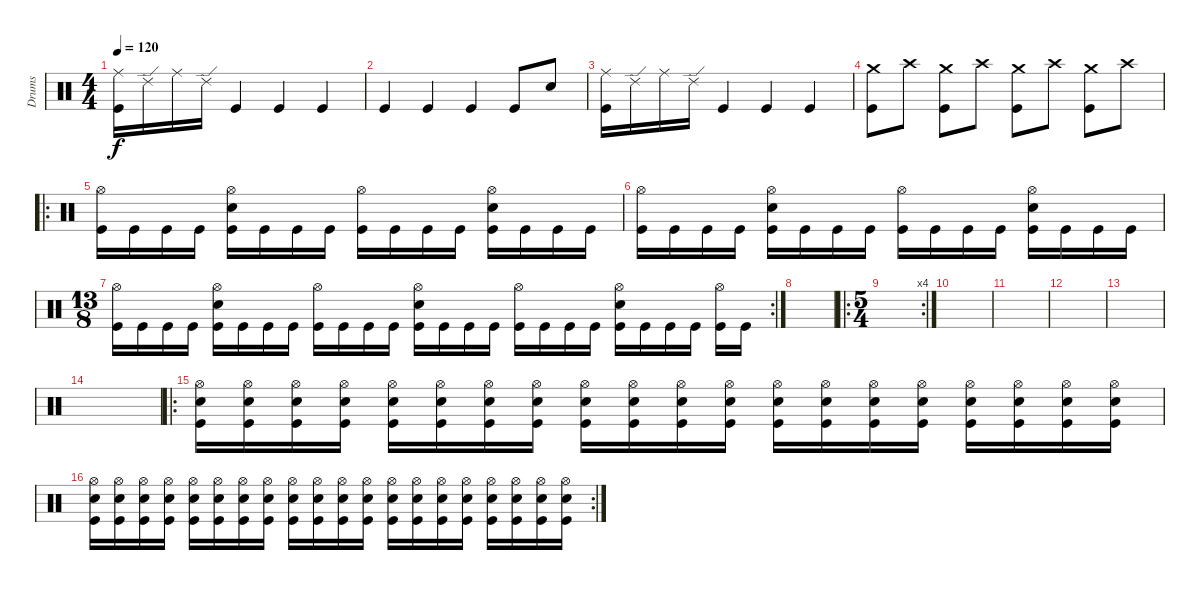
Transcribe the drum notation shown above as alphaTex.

\track ("Drums" "Drums") {instrument percussion}
\staff {score}
\articulation defaults
\ts (4 4)
\tempo 120
\clef neutral
\ks c
("Ride (middle)" "Kick (hit)").16{dy f} "Ride (edge) 2".16 "Ride (middle)".16 "Ride (edge) 2".16 "Kick (hit)".4 "Kick (hit)".4 "Kick (hit)".4 |
"Kick (hit)".4 "Kick (hit)".4 "Kick (hit)".4 "Kick (hit)".8 "Snare (hit) 2".8 |
("Ride (middle)" "Kick (hit)").16 "Ride (edge) 2".16 "Ride (middle)".16 "Ride (edge) 2".16 "Kick (hit)".4 "Kick (hit)".4 "Kick (hit)".4 |
("Crash medium (hit)" "Kick (hit)").8 "Crash high (hit)".8 ("Crash medium (hit)" "Kick (hit)").8 "Crash high (hit)".8 ("Crash medium (hit)" "Kick (hit)").8 "Crash high (hit)".8 ("Crash medium (hit)" "Kick (hit)").8 "Crash high (hit)".8 |
\ro
("Hi-Hat (open)" "Kick (hit)").16 "Kick (hit)".16 "Kick (hit)".16 "Kick (hit)".16 ("Hi-Hat (open)" "Snare (hit) 2" "Kick (hit)").16 "Kick (hit)".16 "Kick (hit)".16 "Kick (hit)".16 ("Hi-Hat (open)" "Kick (hit)").16 "Kick (hit)".16 "Kick (hit)".16 "Kick (hit)".16 ("Hi-Hat (open)" "Snare (hit) 2" "Kick (hit)").16 "Kick (hit)".16 "Kick (hit)".16 "Kick (hit)".16 |
("Hi-Hat (open)" "Kick (hit)").16 "Kick (hit)".16 "Kick (hit)".16 "Kick (hit)".16 ("Hi-Hat (open)" "Snare (hit) 2" "Kick (hit)").16 "Kick (hit)".16 "Kick (hit)".16 "Kick (hit)".16 ("Hi-Hat (open)" "Kick (hit)").16 "Kick (hit)".16 "Kick (hit)".16 "Kick (hit)".16 ("Hi-Hat (open)" "Snare (hit) 2" "Kick (hit)").16 "Kick (hit)".16 "Kick (hit)".16 "Kick (hit)".16 |
\rc 2
\ts (13 8)
("Hi-Hat (open)" "Kick (hit)").16 "Kick (hit)".16 "Kick (hit)".16 "Kick (hit)".16 ("Hi-Hat (open)" "Snare (hit) 2" "Kick (hit)").16 "Kick (hit)".16 "Kick (hit)".16 "Kick (hit)".16 ("Hi-Hat (open)" "Kick (hit)").16 "Kick (hit)".16 "Kick (hit)".16 "Kick (hit)".16 ("Hi-Hat (open)" "Snare (hit) 2" "Kick (hit)").16 "Kick (hit)".16 "Kick (hit)".16 "Kick (hit)".16 ("Hi-Hat (open)" "Kick (hit)").16 "Kick (hit)".16 "Kick (hit)".16 "Kick (hit)".16 ("Hi-Hat (open)" "Snare (hit) 2" "Kick (hit)").16 "Kick (hit)".16 "Kick (hit)".16 "Kick (hit)".16 ("Hi-Hat (open)" "Kick (hit)").16 "Kick (hit)".16 |
|
\ro
\rc 4
\ts (5 4)
|
|
|
|
|
|
\ro
("Hi-Hat (open)" "Snare (hit) 2" "Kick (hit)").16 ("Hi-Hat (open)" "Snare (hit) 2" "Kick (hit)").16 ("Hi-Hat (open)" "Snare (hit) 2" "Kick (hit)").16 ("Hi-Hat (open)" "Snare (hit) 2" "Kick (hit)").16 ("Hi-Hat (open)" "Snare (hit) 2" "Kick (hit)").16 ("Hi-Hat (open)" "Snare (hit) 2" "Kick (hit)").16 ("Hi-Hat (open)" "Snare (hit) 2" "Kick (hit)").16 ("Hi-Hat (open)" "Snare (hit) 2" "Kick (hit)").16 ("Hi-Hat (open)" "Snare (hit) 2" "Kick (hit)").16 ("Hi-Hat (open)" "Snare (hit) 2" "Kick (hit)").16 ("Hi-Hat (open)" "Snare (hit) 2" "Kick (hit)").16 ("Hi-Hat (open)" "Snare (hit) 2" "Kick (hit)").16 ("Hi-Hat (open)" "Snare (hit) 2" "Kick (hit)").16 ("Hi-Hat (open)" "Snare (hit) 2" "Kick (hit)").16 ("Hi-Hat (open)" "Snare (hit) 2" "Kick (hit)").16 ("Hi-Hat (open)" "Snare (hit) 2" "Kick (hit)").16 ("Hi-Hat (open)" "Snare (hit) 2" "Kick (hit)").16 ("Hi-Hat (open)" "Snare (hit) 2" "Kick (hit)").16 ("Hi-Hat (open)" "Snare (hit) 2" "Kick (hit)").16 ("Hi-Hat (open)" "Snare (hit) 2" "Kick (hit)").16 |
\rc 2
("Hi-Hat (open)" "Snare (hit) 2" "Kick (hit)").16 ("Hi-Hat (open)" "Snare (hit) 2" "Kick (hit)").16 ("Hi-Hat (open)" "Snare (hit) 2" "Kick (hit)").16 ("Hi-Hat (open)" "Snare (hit) 2" "Kick (hit)").16 ("Hi-Hat (open)" "Snare (hit) 2" "Kick (hit)").16 ("Hi-Hat (open)" "Snare (hit) 2" "Kick (hit)").16 ("Hi-Hat (open)" "Snare (hit) 2" "Kick (hit)").16 ("Hi-Hat (open)" "Snare (hit) 2" "Kick (hit)").16 ("Hi-Hat (open)" "Snare (hit) 2" "Kick (hit)").16 ("Hi-Hat (open)" "Snare (hit) 2" "Kick (hit)").16 ("Hi-Hat (open)" "Snare (hit) 2" "Kick (hit)").16 ("Hi-Hat (open)" "Snare (hit) 2" "Kick (hit)").16 ("Hi-Hat (open)" "Snare (hit) 2" "Kick (hit)").16 ("Hi-Hat (open)" "Snare (hit) 2" "Kick (hit)").16 ("Hi-Hat (open)" "Snare (hit) 2" "Kick (hit)").16 ("Hi-Hat (open)" "Snare (hit) 2" "Kick (hit)").16 ("Hi-Hat (open)" "Snare (hit) 2" "Kick (hit)").16 ("Hi-Hat (open)" "Snare (hit) 2" "Kick (hit)").16 ("Hi-Hat (open)" "Snare (hit) 2" "Kick (hit)").16 ("Hi-Hat (open)" "Snare (hit) 2" "Kick (hit)").16
